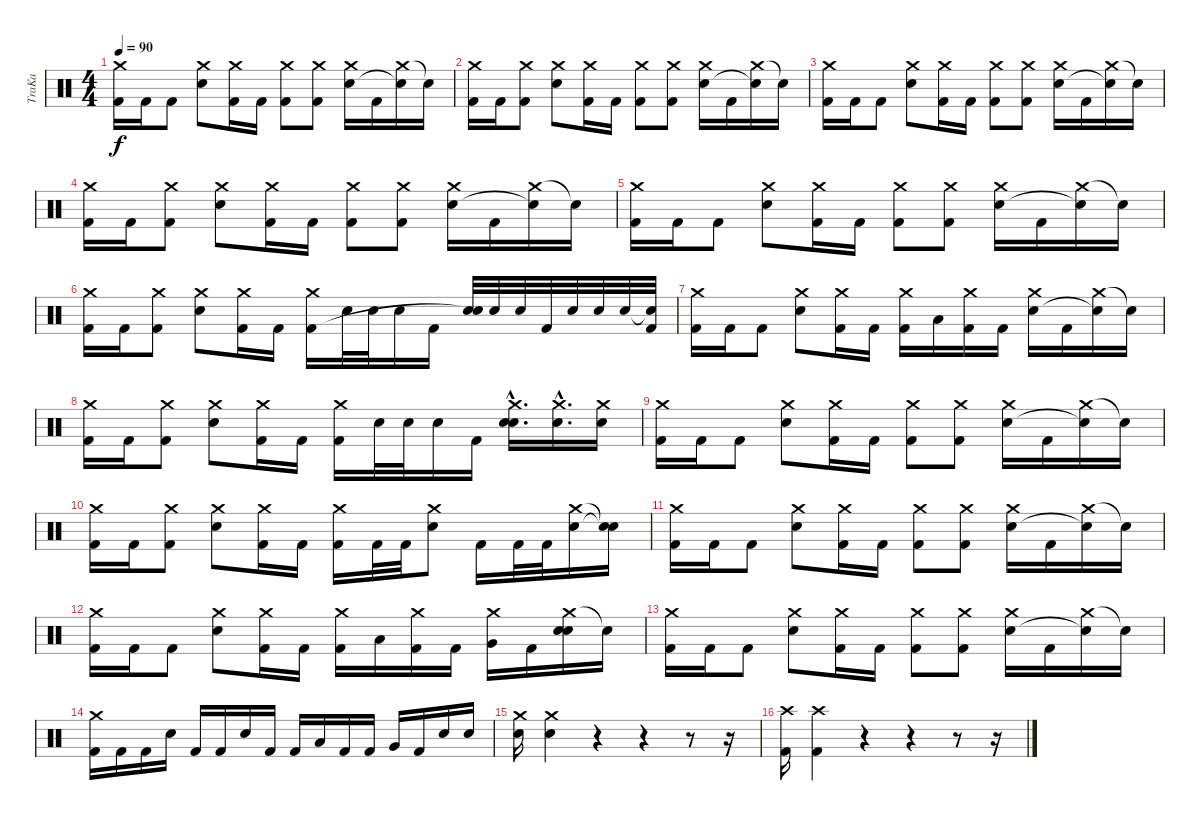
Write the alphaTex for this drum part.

\track ("TraKa" "TraKa") {instrument percussion}
\staff {score}
\articulation defaults
\ts (4 4)
\tempo 90
\clef neutral
\ks c
("Crash medium (hit)" "Kick (hit) 2").16{dy f} "Kick (hit) 2".16 "Kick (hit) 2".8 ("Crash medium (hit)" "Electric Snare (hit)").8 ("Crash medium (hit)" "Kick (hit) 2").16 "Kick (hit) 2".16 ("Crash medium (hit)" "Kick (hit) 2").8 ("Crash medium (hit)" "Kick (hit) 2").8 ("Crash medium (hit)" "Electric Snare (hit)").16 "Kick (hit) 2".16 ("Crash medium (hit)" "Snare (hit)"{t}).16 "Snare (hit)"{t}.16 |
("Crash medium (hit)" "Kick (hit) 2").16 "Kick (hit) 2".16 ("Crash medium (hit)" "Kick (hit) 2").8 ("Crash medium (hit)" "Electric Snare (hit)").8 ("Crash medium (hit)" "Kick (hit) 2").16 "Kick (hit) 2".16 ("Crash medium (hit)" "Kick (hit) 2").8 ("Crash medium (hit)" "Kick (hit) 2").8 ("Crash medium (hit)" "Electric Snare (hit)").16 "Kick (hit) 2".16 ("Crash medium (hit)" "Snare (hit)"{t}).16 "Snare (hit)"{t}.16 |
("Crash medium (hit)" "Kick (hit) 2").16 "Kick (hit) 2".16 "Kick (hit) 2".8 ("Crash medium (hit)" "Electric Snare (hit)").8 ("Crash medium (hit)" "Kick (hit) 2").16 "Kick (hit) 2".16 ("Crash medium (hit)" "Kick (hit) 2").8 ("Crash medium (hit)" "Kick (hit) 2").8 ("Crash medium (hit)" "Electric Snare (hit)").16 "Kick (hit) 2".16 ("Crash medium (hit)" "Snare (hit)"{t}).16 "Snare (hit)"{t}.16 |
("Crash medium (hit)" "Kick (hit) 2").16 "Kick (hit) 2".16 ("Crash medium (hit)" "Kick (hit) 2").8 ("Crash medium (hit)" "Electric Snare (hit)").8 ("Crash medium (hit)" "Kick (hit) 2").16 "Kick (hit) 2".16 ("Crash medium (hit)" "Kick (hit) 2").8 ("Crash medium (hit)" "Kick (hit) 2").8 ("Crash medium (hit)" "Electric Snare (hit)").16 "Kick (hit) 2".16 ("Crash medium (hit)" "Snare (hit)"{t}).16 "Snare (hit)"{t}.16 |
("Crash medium (hit)" "Kick (hit) 2").16 "Kick (hit) 2".16 "Kick (hit) 2".8 ("Crash medium (hit)" "Electric Snare (hit)").8 ("Crash medium (hit)" "Kick (hit) 2").16 "Kick (hit) 2".16 ("Crash medium (hit)" "Kick (hit) 2").8 ("Crash medium (hit)" "Kick (hit) 2").8 ("Crash medium (hit)" "Electric Snare (hit)").16 "Kick (hit) 2".16 ("Crash medium (hit)" "Snare (hit)"{t}).16 "Snare (hit)"{t}.16 |
("Crash medium (hit)" "Kick (hit) 2").16 "Kick (hit) 2".16 ("Crash medium (hit)" "Kick (hit) 2").8 ("Crash medium (hit)" "Electric Snare (hit)").8 ("Crash medium (hit)" "Kick (hit) 2").16 "Kick (hit) 2".16 ("Crash medium (hit)" "Kick (hit) 2").16 "Electric Snare (hit)".32 "Electric Snare (hit)".32 "Electric Snare (hit)".16 "Kick (hit) 2".16 ("Electric Snare (hit)" "Snare (hit)"{t}).32 "Electric Snare (hit)".32 "Electric Snare (hit)".32 "Kick (hit) 2".32 "Electric Snare (hit)".32 "Electric Snare (hit)".32 "Electric Snare (hit)".32 ("Snare (hit)"{t} "Kick (hit) 2").32 |
("Crash medium (hit)" "Kick (hit) 2").16 "Kick (hit) 2".16 "Kick (hit) 2".8 ("Crash medium (hit)" "Electric Snare (hit)").8 ("Crash medium (hit)" "Kick (hit) 2").16 "Kick (hit) 2".16 ("Crash medium (hit)" "Kick (hit) 2").16 "Low Tom (hit)".16 ("Crash medium (hit)" "Kick (hit) 2").16 "Kick (hit) 2".16 ("Crash medium (hit)" "Electric Snare (hit)").16 "Kick (hit) 2".16 ("Crash medium (hit)" "Snare (hit)"{t}).16 "Snare (hit)"{t}.16 |
("Crash medium (hit)" "Kick (hit) 2").16 "Kick (hit) 2".16 ("Crash medium (hit)" "Kick (hit) 2").8 ("Crash medium (hit)" "Electric Snare (hit)").8 ("Crash medium (hit)" "Kick (hit) 2").16 "Kick (hit) 2".16 ("Crash medium (hit)" "Kick (hit) 2").16 "Electric Snare (hit)".32 "Electric Snare (hit)".32 "Electric Snare (hit)".16 "Kick (hit) 2".16 ("Crash medium (hit)"{hac} "Electric Snare (hit)"{hac} "Snare (hit)"{hac}).16{d} ("Crash medium (hit)"{hac} "Electric Snare (hit)"{hac}).16{d} ("Crash medium (hit)" "Electric Snare (hit)").16 |
("Crash medium (hit)" "Kick (hit) 2").16 "Kick (hit) 2".16 "Kick (hit) 2".8 ("Crash medium (hit)" "Electric Snare (hit)").8 ("Crash medium (hit)" "Kick (hit) 2").16 "Kick (hit) 2".16 ("Crash medium (hit)" "Kick (hit) 2").8 ("Crash medium (hit)" "Kick (hit) 2").8 ("Crash medium (hit)" "Electric Snare (hit)").16 "Kick (hit) 2".16 ("Crash medium (hit)" "Snare (hit)"{t}).16 "Snare (hit)"{t}.16 |
("Crash medium (hit)" "Kick (hit) 2").16 "Kick (hit) 2".16 ("Crash medium (hit)" "Kick (hit) 2").8 ("Crash medium (hit)" "Electric Snare (hit)").8 ("Crash medium (hit)" "Kick (hit) 2").16 "Kick (hit) 2".16 ("Crash medium (hit)" "Kick (hit) 2").16 "Kick (hit) 2".32 "Kick (hit) 2".32 ("Crash medium (hit)" "Electric Snare (hit)").8 "Kick (hit) 2".16 "Kick (hit) 2".32 "Kick (hit) 2".32 ("Crash medium (hit)" "Electric Snare (hit)").16 ("Snare (hit)"{t} "Snare (hit)"{t}).16 |
("Crash medium (hit)" "Kick (hit) 2").16 "Kick (hit) 2".16 "Kick (hit) 2".8 ("Crash medium (hit)" "Electric Snare (hit)").8 ("Crash medium (hit)" "Kick (hit) 2").16 "Kick (hit) 2".16 ("Crash medium (hit)" "Kick (hit) 2").8 ("Crash medium (hit)" "Kick (hit) 2").8 ("Crash medium (hit)" "Electric Snare (hit)").16 "Kick (hit) 2".16 ("Crash medium (hit)" "Snare (hit)"{t}).16 "Snare (hit)"{t}.16 |
("Crash medium (hit)" "Kick (hit) 2").16 "Kick (hit) 2".16 "Kick (hit) 2".8 ("Crash medium (hit)" "Electric Snare (hit)").8 ("Crash medium (hit)" "Kick (hit) 2").16 "Kick (hit) 2".16 ("Crash medium (hit)" "Kick (hit) 2").16 "Low Tom (hit)".16 ("Crash medium (hit)" "Kick (hit) 2").16 "Kick (hit) 2".16 ("Crash medium (hit)" "Very Low Tom (hit)").16 "Kick (hit) 2".16 ("Crash medium (hit)" "Electric Snare (hit)" "Snare (hit)").16 "Snare (hit)"{t}.16 |
("Crash medium (hit)" "Kick (hit) 2").16 "Kick (hit) 2".16 "Kick (hit) 2".8 ("Crash medium (hit)" "Electric Snare (hit)").8 ("Crash medium (hit)" "Kick (hit) 2").16 "Kick (hit) 2".16 ("Crash medium (hit)" "Kick (hit) 2").8 ("Crash medium (hit)" "Kick (hit) 2").8 ("Crash medium (hit)" "Electric Snare (hit)").16 "Kick (hit) 2".16 ("Crash medium (hit)" "Snare (hit)"{t}).16 "Snare (hit)"{t}.16 |
("Crash medium (hit)" "Kick (hit) 2").16 "Kick (hit) 2".16 "Kick (hit) 2".16 "Electric Snare (hit)".16 "Kick (hit) 2".16 "Kick (hit) 2".16 "Electric Snare (hit)".16 "Kick (hit) 2".16 "Kick (hit) 2".16 "Low Tom (hit)".16 "Kick (hit) 2".16 "Kick (hit) 2".16 "Very Low Tom (hit)".16 "Kick (hit) 2".16 "Electric Snare (hit)".16 "Electric Snare (hit)".16 |
("Crash medium (hit)" "Electric Snare (hit)").16 ("Crash medium (hit)" "Electric Snare (hit)").4 r.4 r.4 r.8 r.16 |
("Crash high (hit)" "Kick (hit) 2").16 ("Crash high (hit)" "Kick (hit) 2").4 r.4 r.4 r.8 r.16
